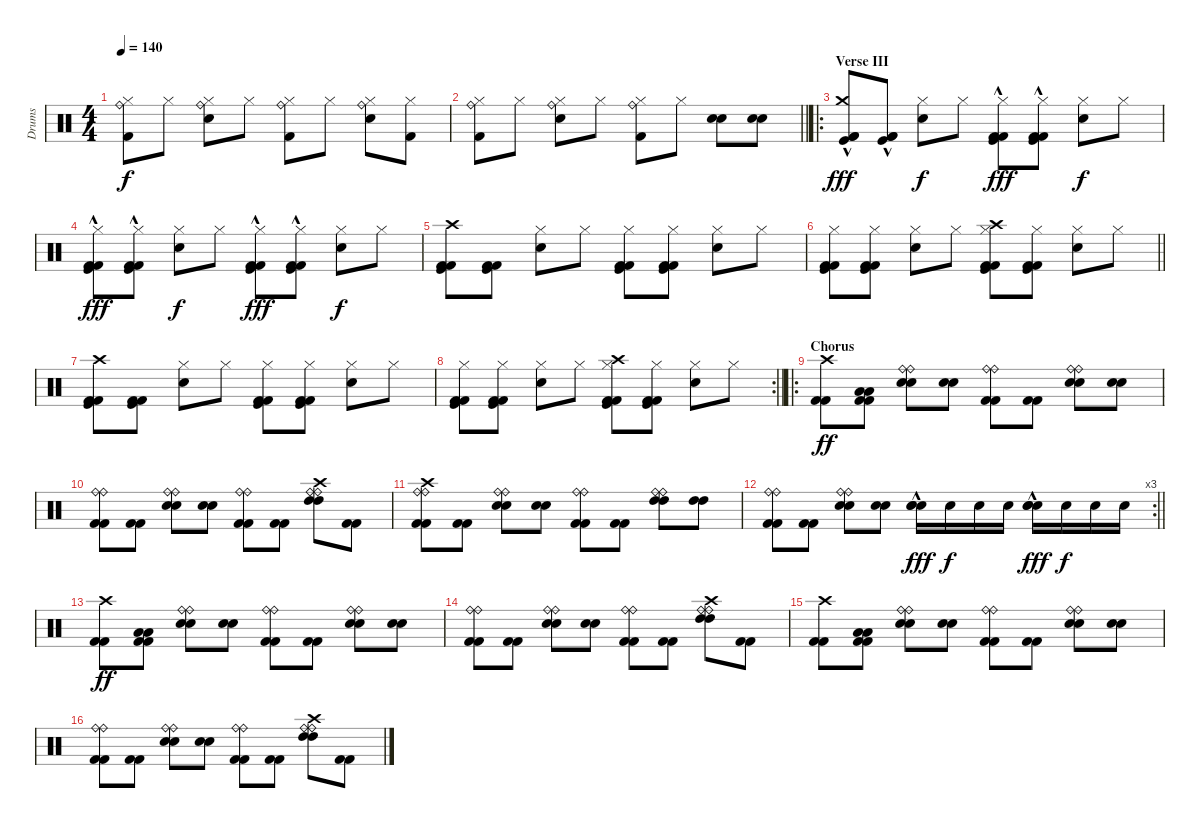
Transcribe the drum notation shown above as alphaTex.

\track ("Drums" "Drums") {instrument percussion}
\staff {score}
\articulation defaults
\ts (4 4)
\tempo 140
\clef neutral
\ks c
("Ride (bell)" "Hi-Hat (closed)" "Kick (hit) 2").8{dy f} "Hi-Hat (closed)".8 ("Ride (bell)" "Hi-Hat (closed)" "Electric Snare (hit)").8 "Hi-Hat (closed)".8 ("Ride (bell)" "Hi-Hat (closed)" "Kick (hit) 2").8 "Hi-Hat (closed)".8 ("Ride (bell)" "Hi-Hat (closed)" "Electric Snare (hit)").8 ("Hi-Hat (closed)" "Kick (hit) 2").8 |
\barLineRight lightlight
("Ride (bell)" "Hi-Hat (closed)" "Kick (hit) 2").8 "Hi-Hat (closed)".8 ("Ride (bell)" "Hi-Hat (closed)" "Electric Snare (hit)").8 "Hi-Hat (closed)".8 ("Ride (bell)" "Hi-Hat (closed)" "Kick (hit) 2").8 "Hi-Hat (closed)".8 ("Snare (hit) 2" "Electric Snare (hit)").8 ("Snare (hit) 2" "Electric Snare (hit)").8 |
\ro
\section ("" "Verse III")
("Kick (hit) 2" "Crash medium (hit)" "Kick (hit) 2"{hac} "Kick (hit)"{hac}).8{dy fff} ("Kick (hit) 2" "Kick (hit) 2"{hac} "Kick (hit)"{hac}).8 ("Hi-Hat (closed)" "Electric Snare (hit)").8{dy f} "Hi-Hat (closed)".8 ("Kick (hit) 2" "Hi-Hat (closed)" "Kick (hit)"{hac} "Kick (hit) 2"{hac}).8{dy fff} ("Kick (hit) 2" "Hi-Hat (closed)" "Kick (hit)"{hac} "Kick (hit) 2"{hac}).8 ("Hi-Hat (closed)" "Electric Snare (hit)").8{dy f} "Hi-Hat (closed)".8 |
("Kick (hit) 2" "Hi-Hat (closed)" "Kick (hit)"{hac} "Kick (hit) 2"{hac}).8{dy fff} ("Kick (hit) 2" "Hi-Hat (closed)" "Kick (hit)"{hac} "Kick (hit) 2"{hac}).8 ("Hi-Hat (closed)" "Electric Snare (hit)").8{dy f} "Hi-Hat (closed)".8 ("Kick (hit) 2" "Hi-Hat (closed)" "Kick (hit)"{hac} "Kick (hit) 2"{hac}).8{dy fff} ("Kick (hit) 2" "Hi-Hat (closed)" "Kick (hit)"{hac} "Kick (hit) 2"{hac}).8 ("Hi-Hat (closed)" "Electric Snare (hit)").8{dy f} "Hi-Hat (closed)".8 |
("Kick (hit) 2" "Crash high (hit)" "Kick (hit) 2" "Kick (hit)").8 ("Kick (hit) 2" "Kick (hit) 2" "Kick (hit)").8 ("Hi-Hat (closed)" "Electric Snare (hit)").8 "Hi-Hat (closed)".8 ("Kick (hit) 2" "Hi-Hat (closed)" "Kick (hit) 2" "Kick (hit)").8 ("Kick (hit) 2" "Hi-Hat (closed)" "Kick (hit) 2" "Kick (hit)").8 ("Hi-Hat (closed)" "Electric Snare (hit)").8 "Hi-Hat (closed)".8 |
\barLineRight lightlight
("Kick (hit) 2" "Hi-Hat (closed)" "Kick (hit) 2" "Kick (hit)").8 ("Kick (hit) 2" "Hi-Hat (closed)" "Kick (hit) 2" "Kick (hit)").8 ("Hi-Hat (closed)" "Electric Snare (hit)").8 "Hi-Hat (closed)".8 ("Crash high (hit)" "Kick (hit) 2" "Hi-Hat (closed)" "Kick (hit) 2" "Kick (hit)").8 ("Kick (hit) 2" "Hi-Hat (closed)" "Kick (hit) 2" "Kick (hit)").8 ("Hi-Hat (closed)" "Electric Snare (hit)").8 "Hi-Hat (closed)".8 |
("Kick (hit) 2" "Crash high (hit)" "Kick (hit) 2" "Kick (hit)").8 ("Kick (hit) 2" "Kick (hit) 2" "Kick (hit)").8 ("Hi-Hat (closed)" "Electric Snare (hit)").8 "Hi-Hat (closed)".8 ("Kick (hit) 2" "Hi-Hat (closed)" "Kick (hit) 2" "Kick (hit)").8 ("Kick (hit) 2" "Hi-Hat (closed)" "Kick (hit) 2" "Kick (hit)").8 ("Hi-Hat (closed)" "Electric Snare (hit)").8 "Hi-Hat (closed)".8 |
\rc 2
\barLineRight lightlight
("Kick (hit) 2" "Hi-Hat (closed)" "Kick (hit) 2" "Kick (hit)").8 ("Kick (hit) 2" "Hi-Hat (closed)" "Kick (hit) 2" "Kick (hit)").8 ("Hi-Hat (closed)" "Electric Snare (hit)").8 "Hi-Hat (closed)".8 ("Crash high (hit)" "Kick (hit) 2" "Hi-Hat (closed)" "Kick (hit) 2" "Kick (hit)").8 ("Kick (hit) 2" "Hi-Hat (closed)" "Kick (hit) 2" "Kick (hit)").8 ("Hi-Hat (closed)" "Electric Snare (hit)").8 "Hi-Hat (closed)".8 |
\ro
\section ("" "Chorus")
("Kick (hit) 2" "Kick (hit) 2" "Crash high (hit)").8{dy ff} ("Kick (hit) 2" "Kick (hit) 2" "Low Tom (hit)" "Low Tom (hit)").8 ("Electric Snare (hit)" "Electric Snare (hit)" "Ride (bell)" "Ride (bell)").8 ("Electric Snare (hit)" "Electric Snare (hit)").8 ("Kick (hit) 2" "Kick (hit) 2" "Ride (bell)" "Ride (bell)").8 ("Kick (hit) 2" "Kick (hit) 2").8 ("Electric Snare (hit)" "Electric Snare (hit)" "Ride (bell)" "Ride (bell)").8 ("Electric Snare (hit)" "Electric Snare (hit)").8 |
("Kick (hit) 2" "Kick (hit) 2" "Ride (bell)" "Ride (bell)").8 ("Kick (hit) 2" "Kick (hit) 2").8 ("Electric Snare (hit)" "Electric Snare (hit)" "Ride (bell)" "Ride (bell)").8 ("Electric Snare (hit)" "Electric Snare (hit)").8 ("Kick (hit) 2" "Kick (hit) 2" "Ride (bell)" "Ride (bell)").8 ("Kick (hit) 2" "Kick (hit) 2").8 ("High Tom (hit)" "High Tom (hit)" "Ride (bell)" "Crash high (hit)" "Ride (bell)").8 ("Kick (hit) 2" "Kick (hit) 2").8 |
("Kick (hit) 2" "Kick (hit) 2" "Ride (bell)" "Ride (bell)" "Crash high (hit)").8 ("Kick (hit) 2" "Kick (hit) 2").8 ("Electric Snare (hit)" "Electric Snare (hit)" "Ride (bell)" "Ride (bell)").8 ("Electric Snare (hit)" "Electric Snare (hit)").8 ("Kick (hit) 2" "Kick (hit) 2" "Ride (bell)" "Ride (bell)").8 ("Kick (hit) 2" "Kick (hit) 2").8 ("High Tom (hit)" "High Tom (hit)" "Ride (bell)" "Ride (bell)").8 ("High Tom (hit)" "High Tom (hit)").8 |
\rc 3
\barLineRight lightlight
("Kick (hit) 2" "Kick (hit) 2" "Ride (bell)" "Ride (bell)").8 ("Kick (hit) 2" "Kick (hit) 2").8 ("Electric Snare (hit)" "Electric Snare (hit)" "Ride (bell)" "Ride (bell)").8 ("Electric Snare (hit)" "Electric Snare (hit)").8 ("Snare (hit) 2"{hac} "Electric Snare (hit)"{hac} "Snare (hit) 2"{hac}).16{dy fff} "Electric Snare (hit)".16{dy f} "Electric Snare (hit)".16 "Electric Snare (hit)".16 ("Snare (hit) 2"{hac} "Electric Snare (hit)"{hac} "Snare (hit) 2"{hac}).16{dy fff} "Electric Snare (hit)".16{dy f} "Electric Snare (hit)".16 "Electric Snare (hit)".16 |
("Kick (hit) 2" "Kick (hit) 2" "Crash high (hit)").8{dy ff} ("Kick (hit) 2" "Kick (hit) 2" "Low Tom (hit)" "Low Tom (hit)").8 ("Electric Snare (hit)" "Electric Snare (hit)" "Ride (bell)" "Ride (bell)").8 ("Electric Snare (hit)" "Electric Snare (hit)").8 ("Kick (hit) 2" "Kick (hit) 2" "Ride (bell)" "Ride (bell)").8 ("Kick (hit) 2" "Kick (hit) 2").8 ("Electric Snare (hit)" "Electric Snare (hit)" "Ride (bell)" "Ride (bell)").8 ("Electric Snare (hit)" "Electric Snare (hit)").8 |
("Kick (hit) 2" "Kick (hit) 2" "Ride (bell)" "Ride (bell)").8 ("Kick (hit) 2" "Kick (hit) 2").8 ("Electric Snare (hit)" "Electric Snare (hit)" "Ride (bell)" "Ride (bell)").8 ("Electric Snare (hit)" "Electric Snare (hit)").8 ("Kick (hit) 2" "Kick (hit) 2" "Ride (bell)" "Ride (bell)").8 ("Kick (hit) 2" "Kick (hit) 2").8 ("High Tom (hit)" "High Tom (hit)" "Ride (bell)" "Crash high (hit)" "Ride (bell)").8 ("Kick (hit) 2" "Kick (hit) 2").8 |
("Kick (hit) 2" "Kick (hit) 2" "Crash high (hit)").8 ("Kick (hit) 2" "Kick (hit) 2" "Low Tom (hit)" "Low Tom (hit)").8 ("Electric Snare (hit)" "Electric Snare (hit)" "Ride (bell)" "Ride (bell)").8 ("Electric Snare (hit)" "Electric Snare (hit)").8 ("Kick (hit) 2" "Kick (hit) 2" "Ride (bell)" "Ride (bell)").8 ("Kick (hit) 2" "Kick (hit) 2").8 ("Electric Snare (hit)" "Electric Snare (hit)" "Ride (bell)" "Ride (bell)").8 ("Electric Snare (hit)" "Electric Snare (hit)").8 |
("Kick (hit) 2" "Kick (hit) 2" "Ride (bell)" "Ride (bell)").8 ("Kick (hit) 2" "Kick (hit) 2").8 ("Electric Snare (hit)" "Electric Snare (hit)" "Ride (bell)" "Ride (bell)").8 ("Electric Snare (hit)" "Electric Snare (hit)").8 ("Kick (hit) 2" "Kick (hit) 2" "Ride (bell)" "Ride (bell)").8 ("Kick (hit) 2" "Kick (hit) 2").8 ("High Tom (hit)" "High Tom (hit)" "Ride (bell)" "Crash high (hit)" "Ride (bell)").8 ("Kick (hit) 2" "Kick (hit) 2").8
